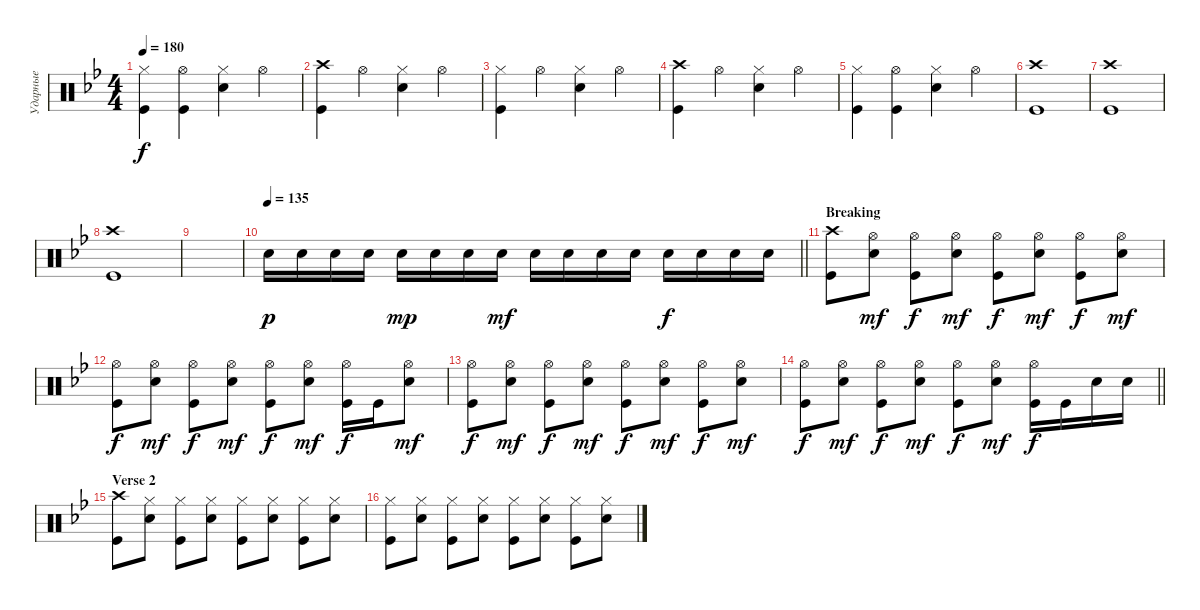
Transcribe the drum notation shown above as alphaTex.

\track ("Ударные" "Ударные") {instrument percussion}
\staff {score}
\articulation defaults
\ts (4 4)
\tempo 180
\clef neutral
\ks gminor
("Hi-Hat (closed)" "Kick (hit)").4{dy f} ("Hi-Hat (open)" "Kick (hit)").4 ("Hi-Hat (closed)" "Snare (hit) 2").4 "Hi-Hat (open)".4 |
("Crash high (hit)" "Kick (hit)").4 "Hi-Hat (open)".4 ("Hi-Hat (closed)" "Snare (hit) 2").4 "Hi-Hat (open)".4 |
("Hi-Hat (closed)" "Kick (hit)").4 "Hi-Hat (open)".4 ("Hi-Hat (closed)" "Snare (hit) 2").4 "Hi-Hat (open)".4 |
("Crash high (hit)" "Kick (hit)").4 "Hi-Hat (open)".4 ("Hi-Hat (closed)" "Snare (hit) 2").4 "Hi-Hat (open)".4 |
("Hi-Hat (closed)" "Kick (hit)").4 ("Hi-Hat (open)" "Kick (hit)").4 ("Hi-Hat (closed)" "Snare (hit) 2").4 "Hi-Hat (open)".4 |
("Kick (hit)" "Crash high (hit)").1 |
("Kick (hit)" "Crash high (hit)").1 |
("Kick (hit)" "Crash high (hit)").1 |
|
\tempo 135
\barLineRight lightlight "Snare (hit) 2".16{dy p} "Snare (hit) 2".16 "Snare (hit) 2".16 "Snare (hit) 2".16 "Snare (hit) 2".16{dy mp} "Snare (hit) 2".16 "Snare (hit) 2".16 "Snare (hit) 2".16{dy mf} "Snare (hit) 2".16 "Snare (hit) 2".16 "Snare (hit) 2".16 "Snare (hit) 2".16 "Snare (hit) 2".16{dy f} "Snare (hit) 2".16 "Snare (hit) 2".16 "Snare (hit) 2".16
|
\section ("" "Breaking")
("Kick (hit)" "Crash high (hit)").8 ("Snare (hit) 2" "Hi-Hat (open)").8{dy mf} ("Kick (hit)" "Hi-Hat (open)").8{dy f} ("Snare (hit) 2" "Hi-Hat (open)").8{dy mf} ("Kick (hit)" "Hi-Hat (open)").8{dy f} ("Snare (hit) 2" "Hi-Hat (open)").8{dy mf} ("Kick (hit)" "Hi-Hat (open)").8{dy f} ("Snare (hit) 2" "Hi-Hat (open)").8{dy mf} |
("Kick (hit)" "Hi-Hat (open)").8{dy f} ("Snare (hit) 2" "Hi-Hat (open)").8{dy mf} ("Kick (hit)" "Hi-Hat (open)").8{dy f} ("Snare (hit) 2" "Hi-Hat (open)").8{dy mf} ("Kick (hit)" "Hi-Hat (open)").8{dy f} ("Snare (hit) 2" "Hi-Hat (open)").8{dy mf} ("Kick (hit)" "Hi-Hat (open)").16{dy f} "Kick (hit)".16 ("Snare (hit) 2" "Hi-Hat (open)").8{dy mf} |
("Kick (hit)" "Hi-Hat (open)").8{dy f} ("Snare (hit) 2" "Hi-Hat (open)").8{dy mf} ("Kick (hit)" "Hi-Hat (open)").8{dy f} ("Snare (hit) 2" "Hi-Hat (open)").8{dy mf} ("Kick (hit)" "Hi-Hat (open)").8{dy f} ("Snare (hit) 2" "Hi-Hat (open)").8{dy mf} ("Kick (hit)" "Hi-Hat (open)").8{dy f} ("Snare (hit) 2" "Hi-Hat (open)").8{dy mf} |
\barLineRight lightlight
("Kick (hit)" "Hi-Hat (open)").8{dy f} ("Snare (hit) 2" "Hi-Hat (open)").8{dy mf} ("Kick (hit)" "Hi-Hat (open)").8{dy f} ("Snare (hit) 2" "Hi-Hat (open)").8{dy mf} ("Kick (hit)" "Hi-Hat (open)").8{dy f} ("Snare (hit) 2" "Hi-Hat (open)").8{dy mf} ("Kick (hit)" "Hi-Hat (open)").16{dy f} "Kick (hit)".16 "Snare (hit) 2".16 "Snare (hit) 2".16 |
\section ("" "Verse 2")
("Kick (hit)" "Crash high (hit)").8 ("Snare (hit) 2" "Hi-Hat (closed)").8 ("Kick (hit)" "Hi-Hat (closed)").8 ("Snare (hit) 2" "Hi-Hat (closed)").8 ("Kick (hit)" "Hi-Hat (closed)").8 ("Snare (hit) 2" "Hi-Hat (closed)").8 ("Kick (hit)" "Hi-Hat (closed)").8 ("Snare (hit) 2" "Hi-Hat (closed)").8 |
("Kick (hit)" "Hi-Hat (closed)").8 ("Snare (hit) 2" "Hi-Hat (closed)").8 ("Kick (hit)" "Hi-Hat (closed)").8 ("Snare (hit) 2" "Hi-Hat (closed)").8 ("Kick (hit)" "Hi-Hat (closed)").8 ("Snare (hit) 2" "Hi-Hat (closed)").8 ("Kick (hit)" "Hi-Hat (closed)").8 ("Snare (hit) 2" "Hi-Hat (closed)").8
